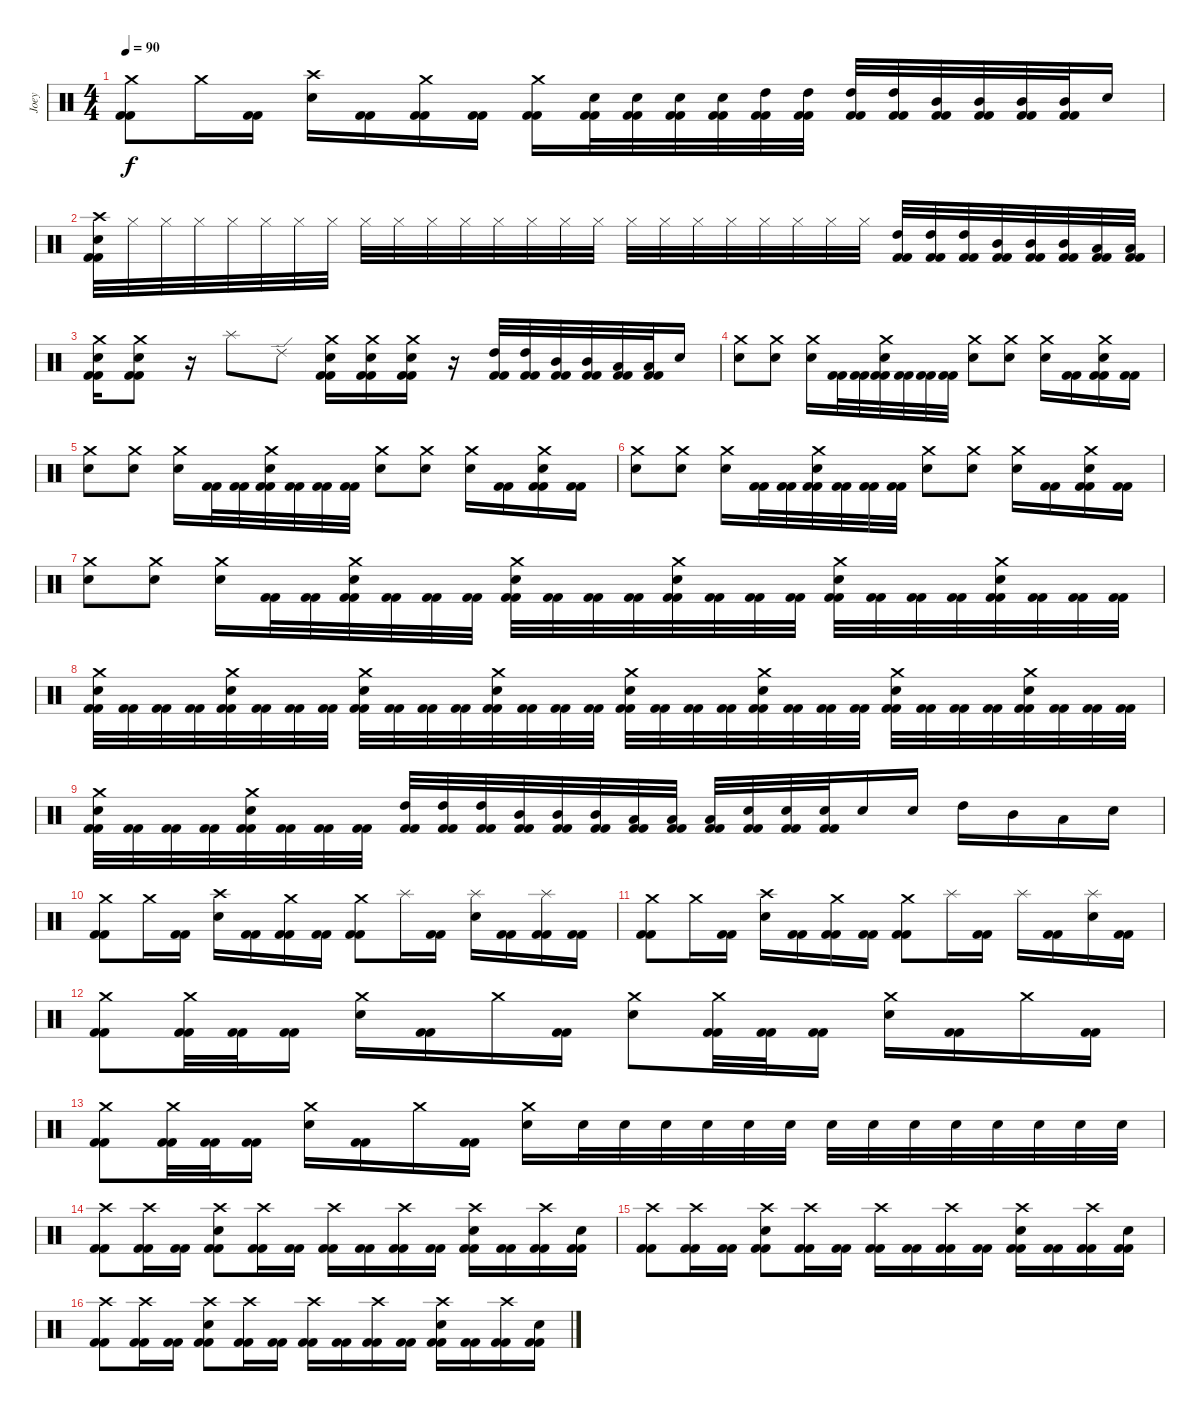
\track ("Joey" "Joey") {instrument percussion}
\staff {score}
\articulation defaults
\ts (4 4)
\tempo 90
\clef neutral
\ks c
("Crash medium (hit)" "Kick (hit) 2" "Kick (hit) 2").8{dy f} "Crash medium (hit)".16 ("Kick (hit) 2" "Kick (hit) 2").16 ("Electric Snare (hit)" "Crash high (hit)").16 ("Kick (hit) 2" "Kick (hit) 2").16 ("Crash medium (hit)" "Kick (hit) 2" "Kick (hit) 2").16 ("Kick (hit) 2" "Kick (hit) 2").16 ("Crash medium (hit)" "Kick (hit) 2" "Kick (hit) 2").16 ("Electric Snare (hit)" "Kick (hit) 2" "Kick (hit) 2").32 ("Electric Snare (hit)" "Kick (hit) 2" "Kick (hit) 2").32 ("Electric Snare (hit)" "Kick (hit) 2" "Kick (hit) 2").32 ("Electric Snare (hit)" "Kick (hit) 2" "Kick (hit) 2").32 ("High Tom (hit)" "Kick (hit) 2" "Kick (hit) 2").32 ("High Tom (hit)" "Kick (hit) 2" "Kick (hit) 2").32 ("High Tom (hit)" "Kick (hit) 2" "Kick (hit) 2").32 ("High Tom (hit)" "Kick (hit) 2" "Kick (hit) 2").32 ("Mid Tom (hit)" "Kick (hit) 2" "Kick (hit) 2").32 ("Mid Tom (hit)" "Kick (hit) 2" "Kick (hit) 2").32 ("Mid Tom (hit)" "Kick (hit) 2" "Kick (hit) 2").32 ("Mid Tom (hit)" "Kick (hit) 2" "Kick (hit) 2").32 "Electric Snare (hit)".16 |
("Electric Snare (hit)" "Crash high (hit)" "Kick (hit) 2" "Kick (hit) 2").32 "Hi-Hat (closed)".32 "Hi-Hat (closed)".32 "Hi-Hat (closed)".32 "Hi-Hat (closed)".32 "Hi-Hat (closed)".32 "Hi-Hat (closed)".32 "Hi-Hat (closed)".32 "Hi-Hat (closed)".32 "Hi-Hat (closed)".32 "Hi-Hat (closed)".32 "Hi-Hat (closed)".32 "Hi-Hat (closed)".32 "Hi-Hat (closed)".32 "Hi-Hat (closed)".32 "Hi-Hat (closed)".32 "Hi-Hat (closed)".32 "Hi-Hat (closed)".32 "Hi-Hat (closed)".32 "Hi-Hat (closed)".32 "Hi-Hat (closed)".32 "Hi-Hat (closed)".32 "Hi-Hat (closed)".32 "Hi-Hat (closed)".32 ("High Tom (hit)" "Kick (hit) 2" "Kick (hit) 2").32 ("High Tom (hit)" "Kick (hit) 2" "Kick (hit) 2").32 ("High Tom (hit)" "Kick (hit) 2" "Kick (hit) 2").32 ("Mid Tom (hit)" "Kick (hit) 2" "Kick (hit) 2").32 ("Mid Tom (hit)" "Kick (hit) 2" "Kick (hit) 2").32 ("Mid Tom (hit)" "Kick (hit) 2" "Kick (hit) 2").32 ("Low Tom (hit)" "Kick (hit) 2" "Kick (hit) 2").32 ("Low Tom (hit)" "Kick (hit) 2" "Kick (hit) 2").32 |
("Electric Snare (hit)" "Crash medium (hit)" "Kick (hit) 2" "Kick (hit) 2").16 ("Electric Snare (hit)" "Crash medium (hit)" "Kick (hit) 2" "Kick (hit) 2").8 r.16 "Splash (hit)".8 "Ride (edge) 2".8 ("Electric Snare (hit)" "Crash medium (hit)" "Kick (hit) 2" "Kick (hit) 2").16 ("Electric Snare (hit)" "Crash medium (hit)" "Kick (hit) 2" "Kick (hit) 2").16 ("Electric Snare (hit)" "Crash medium (hit)" "Kick (hit) 2" "Kick (hit) 2").16 r.16 ("High Tom (hit)" "Kick (hit) 2" "Kick (hit) 2").32 ("High Tom (hit)" "Kick (hit) 2" "Kick (hit) 2").32 ("Mid Tom (hit)" "Kick (hit) 2" "Kick (hit) 2").32 ("Mid Tom (hit)" "Kick (hit) 2" "Kick (hit) 2").32 ("Low Tom (hit)" "Kick (hit) 2" "Kick (hit) 2").32 ("Low Tom (hit)" "Kick (hit) 2" "Kick (hit) 2").32 "Electric Snare (hit)".16 |
("Electric Snare (hit)" "Crash medium (hit)").8 ("Electric Snare (hit)" "Crash medium (hit)").8 ("Electric Snare (hit)" "Crash medium (hit)").16 ("Kick (hit) 2" "Kick (hit) 2").32 ("Kick (hit) 2" "Kick (hit) 2").32 ("Electric Snare (hit)" "Crash medium (hit)" "Kick (hit) 2" "Kick (hit) 2").32 ("Kick (hit) 2" "Kick (hit) 2").32 ("Kick (hit) 2" "Kick (hit) 2").32 ("Kick (hit) 2" "Kick (hit) 2").32 ("Electric Snare (hit)" "Crash medium (hit)").8 ("Electric Snare (hit)" "Crash medium (hit)").8 ("Electric Snare (hit)" "Crash medium (hit)").16 ("Kick (hit) 2" "Kick (hit) 2").16 ("Electric Snare (hit)" "Crash medium (hit)" "Kick (hit) 2" "Kick (hit) 2").16 ("Kick (hit) 2" "Kick (hit) 2").16 |
("Electric Snare (hit)" "Crash medium (hit)").8 ("Electric Snare (hit)" "Crash medium (hit)").8 ("Electric Snare (hit)" "Crash medium (hit)").16 ("Kick (hit) 2" "Kick (hit) 2").32 ("Kick (hit) 2" "Kick (hit) 2").32 ("Electric Snare (hit)" "Crash medium (hit)" "Kick (hit) 2" "Kick (hit) 2").32 ("Kick (hit) 2" "Kick (hit) 2").32 ("Kick (hit) 2" "Kick (hit) 2").32 ("Kick (hit) 2" "Kick (hit) 2").32 ("Electric Snare (hit)" "Crash medium (hit)").8 ("Electric Snare (hit)" "Crash medium (hit)").8 ("Electric Snare (hit)" "Crash medium (hit)").16 ("Kick (hit) 2" "Kick (hit) 2").16 ("Electric Snare (hit)" "Crash medium (hit)" "Kick (hit) 2" "Kick (hit) 2").16 ("Kick (hit) 2" "Kick (hit) 2").16 |
("Electric Snare (hit)" "Crash medium (hit)").8 ("Electric Snare (hit)" "Crash medium (hit)").8 ("Electric Snare (hit)" "Crash medium (hit)").16 ("Kick (hit) 2" "Kick (hit) 2").32 ("Kick (hit) 2" "Kick (hit) 2").32 ("Electric Snare (hit)" "Crash medium (hit)" "Kick (hit) 2" "Kick (hit) 2").32 ("Kick (hit) 2" "Kick (hit) 2").32 ("Kick (hit) 2" "Kick (hit) 2").32 ("Kick (hit) 2" "Kick (hit) 2").32 ("Electric Snare (hit)" "Crash medium (hit)").8 ("Electric Snare (hit)" "Crash medium (hit)").8 ("Electric Snare (hit)" "Crash medium (hit)").16 ("Kick (hit) 2" "Kick (hit) 2").16 ("Electric Snare (hit)" "Crash medium (hit)" "Kick (hit) 2" "Kick (hit) 2").16 ("Kick (hit) 2" "Kick (hit) 2").16 |
("Electric Snare (hit)" "Crash medium (hit)").8 ("Electric Snare (hit)" "Crash medium (hit)").8 ("Electric Snare (hit)" "Crash medium (hit)").16 ("Kick (hit) 2" "Kick (hit) 2").32 ("Kick (hit) 2" "Kick (hit) 2").32 ("Electric Snare (hit)" "Crash medium (hit)" "Kick (hit) 2" "Kick (hit) 2").32 ("Kick (hit) 2" "Kick (hit) 2").32 ("Kick (hit) 2" "Kick (hit) 2").32 ("Kick (hit) 2" "Kick (hit) 2").32 ("Electric Snare (hit)" "Crash medium (hit)" "Kick (hit) 2" "Kick (hit) 2").32 ("Kick (hit) 2" "Kick (hit) 2").32 ("Kick (hit) 2" "Kick (hit) 2").32 ("Kick (hit) 2" "Kick (hit) 2").32 ("Electric Snare (hit)" "Crash medium (hit)" "Kick (hit) 2" "Kick (hit) 2").32 ("Kick (hit) 2" "Kick (hit) 2").32 ("Kick (hit) 2" "Kick (hit) 2").32 ("Kick (hit) 2" "Kick (hit) 2").32 ("Electric Snare (hit)" "Crash medium (hit)" "Kick (hit) 2" "Kick (hit) 2").32 ("Kick (hit) 2" "Kick (hit) 2").32 ("Kick (hit) 2" "Kick (hit) 2").32 ("Kick (hit) 2" "Kick (hit) 2").32 ("Electric Snare (hit)" "Crash medium (hit)" "Kick (hit) 2" "Kick (hit) 2").32 ("Kick (hit) 2" "Kick (hit) 2").32 ("Kick (hit) 2" "Kick (hit) 2").32 ("Kick (hit) 2" "Kick (hit) 2").32 |
("Electric Snare (hit)" "Crash medium (hit)" "Kick (hit) 2" "Kick (hit) 2").32 ("Kick (hit) 2" "Kick (hit) 2").32 ("Kick (hit) 2" "Kick (hit) 2").32 ("Kick (hit) 2" "Kick (hit) 2").32 ("Electric Snare (hit)" "Crash medium (hit)" "Kick (hit) 2" "Kick (hit) 2").32 ("Kick (hit) 2" "Kick (hit) 2").32 ("Kick (hit) 2" "Kick (hit) 2").32 ("Kick (hit) 2" "Kick (hit) 2").32 ("Electric Snare (hit)" "Crash medium (hit)" "Kick (hit) 2" "Kick (hit) 2").32 ("Kick (hit) 2" "Kick (hit) 2").32 ("Kick (hit) 2" "Kick (hit) 2").32 ("Kick (hit) 2" "Kick (hit) 2").32 ("Electric Snare (hit)" "Crash medium (hit)" "Kick (hit) 2" "Kick (hit) 2").32 ("Kick (hit) 2" "Kick (hit) 2").32 ("Kick (hit) 2" "Kick (hit) 2").32 ("Kick (hit) 2" "Kick (hit) 2").32 ("Electric Snare (hit)" "Crash medium (hit)" "Kick (hit) 2" "Kick (hit) 2").32 ("Kick (hit) 2" "Kick (hit) 2").32 ("Kick (hit) 2" "Kick (hit) 2").32 ("Kick (hit) 2" "Kick (hit) 2").32 ("Electric Snare (hit)" "Crash medium (hit)" "Kick (hit) 2" "Kick (hit) 2").32 ("Kick (hit) 2" "Kick (hit) 2").32 ("Kick (hit) 2" "Kick (hit) 2").32 ("Kick (hit) 2" "Kick (hit) 2").32 ("Electric Snare (hit)" "Crash medium (hit)" "Kick (hit) 2" "Kick (hit) 2").32 ("Kick (hit) 2" "Kick (hit) 2").32 ("Kick (hit) 2" "Kick (hit) 2").32 ("Kick (hit) 2" "Kick (hit) 2").32 ("Electric Snare (hit)" "Crash medium (hit)" "Kick (hit) 2" "Kick (hit) 2").32 ("Kick (hit) 2" "Kick (hit) 2").32 ("Kick (hit) 2" "Kick (hit) 2").32 ("Kick (hit) 2" "Kick (hit) 2").32 |
("Electric Snare (hit)" "Crash medium (hit)" "Kick (hit) 2" "Kick (hit) 2").32 ("Kick (hit) 2" "Kick (hit) 2").32 ("Kick (hit) 2" "Kick (hit) 2").32 ("Kick (hit) 2" "Kick (hit) 2").32 ("Electric Snare (hit)" "Crash medium (hit)" "Kick (hit) 2" "Kick (hit) 2").32 ("Kick (hit) 2" "Kick (hit) 2").32 ("Kick (hit) 2" "Kick (hit) 2").32 ("Kick (hit) 2" "Kick (hit) 2").32 ("High Tom (hit)" "Kick (hit) 2" "Kick (hit) 2").32 ("High Tom (hit)" "Kick (hit) 2" "Kick (hit) 2").32 ("High Tom (hit)" "Kick (hit) 2" "Kick (hit) 2").32 ("Mid Tom (hit)" "Kick (hit) 2" "Kick (hit) 2").32 ("Mid Tom (hit)" "Kick (hit) 2" "Kick (hit) 2").32 ("Mid Tom (hit)" "Kick (hit) 2" "Kick (hit) 2").32 ("Low Tom (hit)" "Kick (hit) 2" "Kick (hit) 2").32 ("Low Tom (hit)" "Kick (hit) 2" "Kick (hit) 2").32 ("Low Tom (hit)" "Kick (hit) 2" "Kick (hit) 2").32 ("Electric Snare (hit)" "Kick (hit) 2" "Kick (hit) 2").32 ("Electric Snare (hit)" "Kick (hit) 2" "Kick (hit) 2").32 ("Electric Snare (hit)" "Kick (hit) 2" "Kick (hit) 2").32 "Electric Snare (hit)".16 "Electric Snare (hit)".16 "High Tom (hit)".16 "Mid Tom (hit)".16 "Low Tom (hit)".16 "Electric Snare (hit)".16 |
("Crash medium (hit)" "Kick (hit) 2" "Kick (hit) 2").8 "Crash medium (hit)".16 ("Kick (hit) 2" "Kick (hit) 2").16 ("Electric Snare (hit)" "Crash high (hit)").16 ("Kick (hit) 2" "Kick (hit) 2").16 ("Crash medium (hit)" "Kick (hit) 2" "Kick (hit) 2").16 ("Kick (hit) 2" "Kick (hit) 2").16 ("Crash medium (hit)" "Kick (hit) 2" "Kick (hit) 2").8 "Splash (hit)".16 ("Kick (hit) 2" "Kick (hit) 2").16 ("Electric Snare (hit)" "Splash (hit)").16 ("Kick (hit) 2" "Kick (hit) 2").16 ("Splash (hit)" "Kick (hit) 2" "Kick (hit) 2").16 ("Kick (hit) 2" "Kick (hit) 2").16 |
("Crash medium (hit)" "Kick (hit) 2" "Kick (hit) 2").8 "Crash medium (hit)".16 ("Kick (hit) 2" "Kick (hit) 2").16 ("Electric Snare (hit)" "Crash high (hit)").16 ("Kick (hit) 2" "Kick (hit) 2").16 ("Crash medium (hit)" "Kick (hit) 2" "Kick (hit) 2").16 ("Kick (hit) 2" "Kick (hit) 2").16 ("Crash medium (hit)" "Kick (hit) 2" "Kick (hit) 2").8 "Splash (hit)".16 ("Kick (hit) 2" "Kick (hit) 2").16 "Splash (hit)".16 ("Kick (hit) 2" "Kick (hit) 2").16 ("Electric Snare (hit)" "Splash (hit)").16 ("Kick (hit) 2" "Kick (hit) 2").16 |
("Crash medium (hit)" "Kick (hit) 2" "Kick (hit) 2").8 ("Crash medium (hit)" "Kick (hit) 2" "Kick (hit) 2").32 ("Kick (hit) 2" "Kick (hit) 2").32 ("Kick (hit) 2" "Kick (hit) 2").16 ("Electric Snare (hit)" "Crash medium (hit)").16 ("Kick (hit) 2" "Kick (hit) 2").16 "Crash medium (hit)".16 ("Kick (hit) 2" "Kick (hit) 2").16 ("Electric Snare (hit)" "Crash medium (hit)").8 ("Crash medium (hit)" "Kick (hit) 2" "Kick (hit) 2").32 ("Kick (hit) 2" "Kick (hit) 2").32 ("Kick (hit) 2" "Kick (hit) 2").16 ("Electric Snare (hit)" "Crash medium (hit)").16 ("Kick (hit) 2" "Kick (hit) 2").16 "Crash medium (hit)".16 ("Kick (hit) 2" "Kick (hit) 2").16 |
("Crash medium (hit)" "Kick (hit) 2" "Kick (hit) 2").8 ("Crash medium (hit)" "Kick (hit) 2" "Kick (hit) 2").32 ("Kick (hit) 2" "Kick (hit) 2").32 ("Kick (hit) 2" "Kick (hit) 2").16 ("Electric Snare (hit)" "Crash medium (hit)").16 ("Kick (hit) 2" "Kick (hit) 2").16 "Crash medium (hit)".16 ("Kick (hit) 2" "Kick (hit) 2").16 ("Electric Snare (hit)" "Crash medium (hit)").16 "Electric Snare (hit)".32 "Electric Snare (hit)".32 "Electric Snare (hit)".32 "Electric Snare (hit)".32 "Electric Snare (hit)".32 "Electric Snare (hit)".32 "Electric Snare (hit)".32 "Electric Snare (hit)".32 "Electric Snare (hit)".32 "Electric Snare (hit)".32 "Electric Snare (hit)".32 "Electric Snare (hit)".32 "Electric Snare (hit)".32 "Electric Snare (hit)".32 |
("Crash high (hit)" "Kick (hit) 2" "Kick (hit) 2").8 ("Crash high (hit)" "Kick (hit) 2" "Kick (hit) 2").16 ("Kick (hit) 2" "Kick (hit) 2").16 ("Electric Snare (hit)" "Crash high (hit)" "Kick (hit) 2" "Kick (hit) 2").8 ("Crash high (hit)" "Kick (hit) 2" "Kick (hit) 2").16 ("Kick (hit) 2" "Kick (hit) 2").16 ("Crash high (hit)" "Kick (hit) 2" "Kick (hit) 2").16 ("Kick (hit) 2" "Kick (hit) 2").16 ("Crash high (hit)" "Kick (hit) 2" "Kick (hit) 2").16 ("Kick (hit) 2" "Kick (hit) 2").16 ("Electric Snare (hit)" "Crash high (hit)" "Kick (hit) 2" "Kick (hit) 2").16 ("Kick (hit) 2" "Kick (hit) 2").16 ("Crash high (hit)" "Kick (hit) 2" "Kick (hit) 2").16 ("Electric Snare (hit)" "Kick (hit) 2" "Kick (hit) 2").16 |
("Crash high (hit)" "Kick (hit) 2" "Kick (hit) 2").8 ("Crash high (hit)" "Kick (hit) 2" "Kick (hit) 2").16 ("Kick (hit) 2" "Kick (hit) 2").16 ("Electric Snare (hit)" "Crash high (hit)" "Kick (hit) 2" "Kick (hit) 2").8 ("Crash high (hit)" "Kick (hit) 2" "Kick (hit) 2").16 ("Kick (hit) 2" "Kick (hit) 2").16 ("Crash high (hit)" "Kick (hit) 2" "Kick (hit) 2").16 ("Kick (hit) 2" "Kick (hit) 2").16 ("Crash high (hit)" "Kick (hit) 2" "Kick (hit) 2").16 ("Kick (hit) 2" "Kick (hit) 2").16 ("Electric Snare (hit)" "Crash high (hit)" "Kick (hit) 2" "Kick (hit) 2").16 ("Kick (hit) 2" "Kick (hit) 2").16 ("Crash high (hit)" "Kick (hit) 2" "Kick (hit) 2").16 ("Electric Snare (hit)" "Kick (hit) 2" "Kick (hit) 2").16 |
("Crash high (hit)" "Kick (hit) 2" "Kick (hit) 2").8 ("Crash high (hit)" "Kick (hit) 2" "Kick (hit) 2").16 ("Kick (hit) 2" "Kick (hit) 2").16 ("Electric Snare (hit)" "Crash high (hit)" "Kick (hit) 2" "Kick (hit) 2").8 ("Crash high (hit)" "Kick (hit) 2" "Kick (hit) 2").16 ("Kick (hit) 2" "Kick (hit) 2").16 ("Crash high (hit)" "Kick (hit) 2" "Kick (hit) 2").16 ("Kick (hit) 2" "Kick (hit) 2").16 ("Crash high (hit)" "Kick (hit) 2" "Kick (hit) 2").16 ("Kick (hit) 2" "Kick (hit) 2").16 ("Electric Snare (hit)" "Crash high (hit)" "Kick (hit) 2" "Kick (hit) 2").16 ("Kick (hit) 2" "Kick (hit) 2").16 ("Crash high (hit)" "Kick (hit) 2" "Kick (hit) 2").16 ("Electric Snare (hit)" "Kick (hit) 2" "Kick (hit) 2").16
